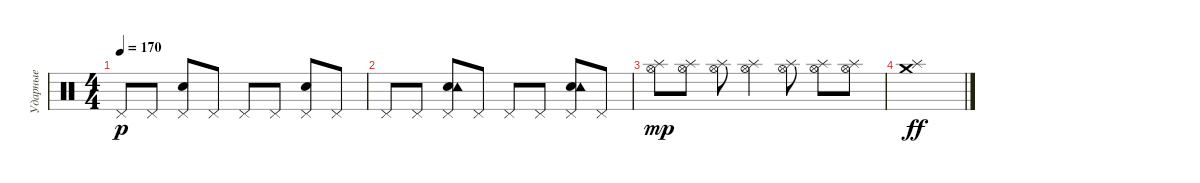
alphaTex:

\track ("Ударные" "Ударные") {instrument percussion}
\staff {score}
\articulation defaults
\ts (4 4)
\tempo 170
\clef neutral
\ks c "Pedal Hi-Hat (hit)".8{dy p} "Pedal Hi-Hat (hit)".8
("Electric Snare (hit)" "Pedal Hi-Hat (hit)").8 "Pedal Hi-Hat (hit)".8 "Pedal Hi-Hat (hit)".8 "Pedal Hi-Hat (hit)".8 ("Electric Snare (hit)" "Pedal Hi-Hat (hit)").8 "Pedal Hi-Hat (hit)".8 |
"Pedal Hi-Hat (hit)".8 "Pedal Hi-Hat (hit)".8 ("Electric Snare (hit)" "Pedal Hi-Hat (hit)" "Tambourine (hit)").8 "Pedal Hi-Hat (hit)".8 "Pedal Hi-Hat (hit)".8 "Pedal Hi-Hat (hit)".8 ("Electric Snare (hit)" "Pedal Hi-Hat (hit)" "Tambourine (hit)").8 "Pedal Hi-Hat (hit)".8 |
("Splash (hit)" "Hi-Hat (open)").8{dy mp} ("Splash (hit)" "Hi-Hat (open)").8 ("Splash (hit)" "Hi-Hat (open)").8 ("Splash (hit)" "Hi-Hat (open)").4 ("Splash (hit)" "Hi-Hat (open)").8 ("Splash (hit)" "Hi-Hat (open)").8 ("Splash (hit)" "Hi-Hat (open)").8 |
("Crash medium (hit)" "Splash (hit)").1{dy ff}
